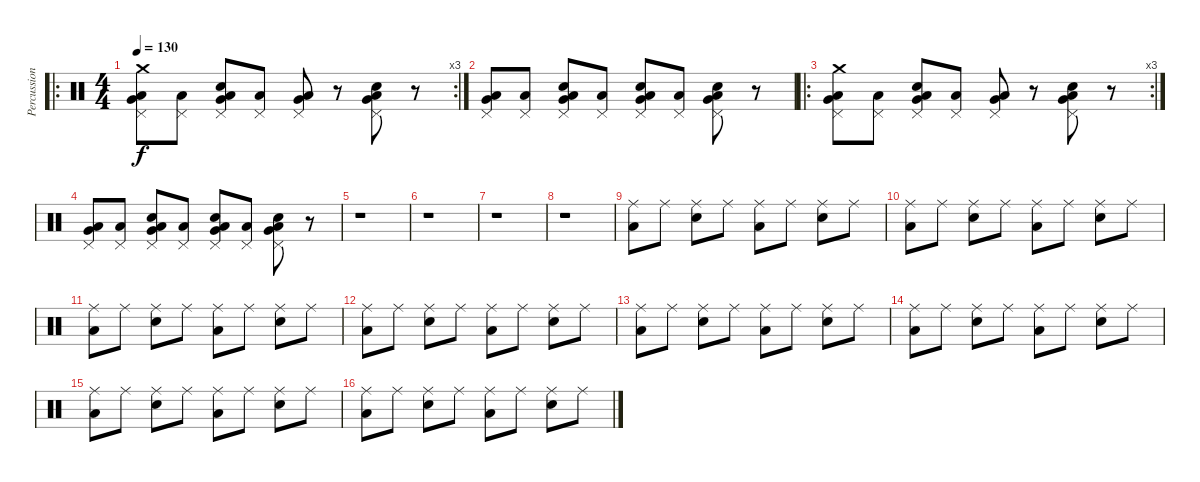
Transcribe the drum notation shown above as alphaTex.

\track ("Percussions" "Percussion") {instrument percussion}
\staff {score}
\articulation defaults
\ro
\rc 3
\ts (4 4)
\tempo 130
\clef neutral
\ks c
("Low Floor Tom (hit)" "Very Low Tom (hit)" "Pedal Hi-Hat (hit)" "Crash medium (hit)").8{dy f} ("Low Floor Tom (hit)" "Pedal Hi-Hat (hit)").8 ("Low Floor Tom (hit)" "Snare (hit) 2" "Very Low Tom (hit)" "Pedal Hi-Hat (hit)").8 ("Low Floor Tom (hit)" "Pedal Hi-Hat (hit)").8 ("Low Floor Tom (hit)" "Very Low Tom (hit)" "Pedal Hi-Hat (hit)").8 r.8 ("Low Floor Tom (hit)" "Snare (hit) 2" "Very Low Tom (hit)" "Pedal Hi-Hat (hit)").8 r.8 |
("Low Floor Tom (hit)" "Very Low Tom (hit)" "Pedal Hi-Hat (hit)").8 ("Low Floor Tom (hit)" "Pedal Hi-Hat (hit)").8 ("Low Floor Tom (hit)" "Snare (hit) 2" "Very Low Tom (hit)" "Pedal Hi-Hat (hit)").8 ("Low Floor Tom (hit)" "Pedal Hi-Hat (hit)").8 ("Low Floor Tom (hit)" "Snare (hit) 2" "Very Low Tom (hit)" "Pedal Hi-Hat (hit)").8 ("Low Floor Tom (hit)" "Pedal Hi-Hat (hit)").8 ("Low Floor Tom (hit)" "Snare (hit) 2" "Very Low Tom (hit)" "Pedal Hi-Hat (hit)").8 r.8 |
\ro
\rc 3
("Low Floor Tom (hit)" "Very Low Tom (hit)" "Pedal Hi-Hat (hit)" "Crash medium (hit)").8 ("Low Floor Tom (hit)" "Pedal Hi-Hat (hit)").8 ("Low Floor Tom (hit)" "Snare (hit) 2" "Very Low Tom (hit)" "Pedal Hi-Hat (hit)").8 ("Low Floor Tom (hit)" "Pedal Hi-Hat (hit)").8 ("Low Floor Tom (hit)" "Very Low Tom (hit)" "Pedal Hi-Hat (hit)").8 r.8 ("Low Floor Tom (hit)" "Snare (hit) 2" "Very Low Tom (hit)" "Pedal Hi-Hat (hit)").8 r.8 |
("Low Floor Tom (hit)" "Very Low Tom (hit)" "Pedal Hi-Hat (hit)").8 ("Low Floor Tom (hit)" "Pedal Hi-Hat (hit)").8 ("Low Floor Tom (hit)" "Snare (hit) 2" "Very Low Tom (hit)" "Pedal Hi-Hat (hit)").8 ("Low Floor Tom (hit)" "Pedal Hi-Hat (hit)").8 ("Low Floor Tom (hit)" "Snare (hit) 2" "Very Low Tom (hit)" "Pedal Hi-Hat (hit)").8 ("Low Floor Tom (hit)" "Pedal Hi-Hat (hit)").8 ("Low Floor Tom (hit)" "Snare (hit) 2" "Very Low Tom (hit)" "Pedal Hi-Hat (hit)").8 r.8 |
r.1 |
r.1 |
r.1 |
r.1 |
("Low Floor Tom (hit)" "Ride (middle)").8 "Ride (middle)".8 ("Snare (hit) 2" "Ride (middle)").8 "Ride (middle)".8 ("Low Floor Tom (hit)" "Ride (middle)").8 "Ride (middle)".8 ("Snare (hit) 2" "Ride (middle)").8 "Ride (middle)".8 |
("Low Floor Tom (hit)" "Ride (middle)").8 "Ride (middle)".8 ("Snare (hit) 2" "Ride (middle)").8 "Ride (middle)".8 ("Low Floor Tom (hit)" "Ride (middle)").8 "Ride (middle)".8 ("Snare (hit) 2" "Ride (middle)").8 "Ride (middle)".8 |
("Low Floor Tom (hit)" "Ride (middle)").8 "Ride (middle)".8 ("Snare (hit) 2" "Ride (middle)").8 "Ride (middle)".8 ("Low Floor Tom (hit)" "Ride (middle)").8 "Ride (middle)".8 ("Snare (hit) 2" "Ride (middle)").8 "Ride (middle)".8 |
("Low Floor Tom (hit)" "Ride (middle)").8 "Ride (middle)".8 ("Snare (hit) 2" "Ride (middle)").8 "Ride (middle)".8 ("Low Floor Tom (hit)" "Ride (middle)").8 "Ride (middle)".8 ("Snare (hit) 2" "Ride (middle)").8 "Ride (middle)".8 |
("Low Floor Tom (hit)" "Ride (middle)").8 "Ride (middle)".8 ("Snare (hit) 2" "Ride (middle)").8 "Ride (middle)".8 ("Low Floor Tom (hit)" "Ride (middle)").8 "Ride (middle)".8 ("Snare (hit) 2" "Ride (middle)").8 "Ride (middle)".8 |
("Low Floor Tom (hit)" "Ride (middle)").8 "Ride (middle)".8 ("Snare (hit) 2" "Ride (middle)").8 "Ride (middle)".8 ("Low Floor Tom (hit)" "Ride (middle)").8 "Ride (middle)".8 ("Snare (hit) 2" "Ride (middle)").8 "Ride (middle)".8 |
("Low Floor Tom (hit)" "Ride (middle)").8 "Ride (middle)".8 ("Snare (hit) 2" "Ride (middle)").8 "Ride (middle)".8 ("Low Floor Tom (hit)" "Ride (middle)").8 "Ride (middle)".8 ("Snare (hit) 2" "Ride (middle)").8 "Ride (middle)".8 |
("Low Floor Tom (hit)" "Ride (middle)").8 "Ride (middle)".8 ("Snare (hit) 2" "Ride (middle)").8 "Ride (middle)".8 ("Low Floor Tom (hit)" "Ride (middle)").8 "Ride (middle)".8 ("Snare (hit) 2" "Ride (middle)").8 "Ride (middle)".8
